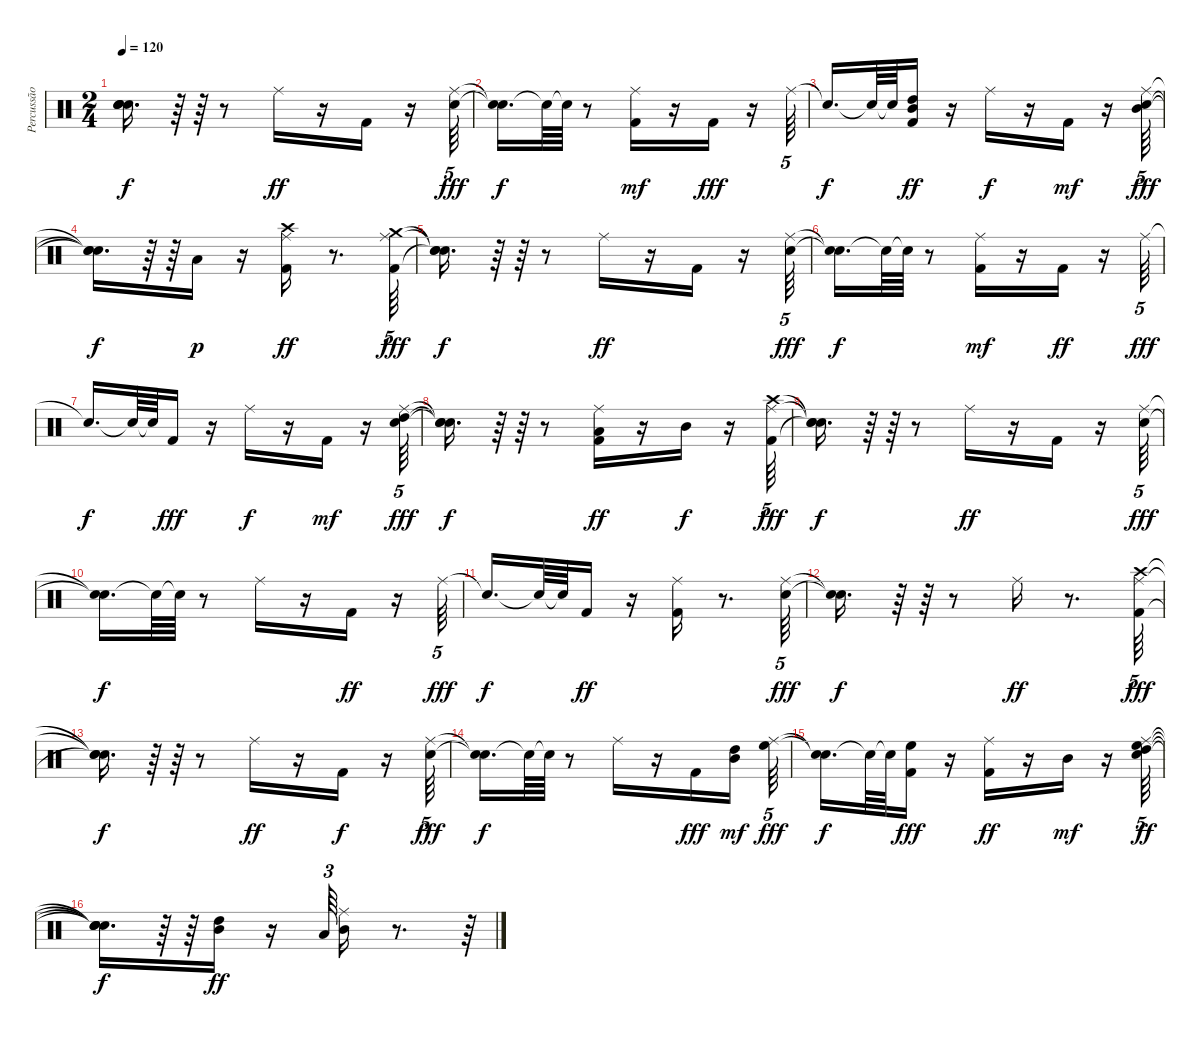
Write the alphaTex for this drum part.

\track ("Percussão" "Percussão") {instrument percussion}
\staff {score}
\articulation defaults
\ts (2 4)
\tempo 120
\clef neutral
\ks c
("Snare (hit)"{t} "Snare (hit)"{t} "Snare (hit)"{t} "Snare (hit)"{t}).16{d dy f} r.64 r.64 r.8 "Ride (middle)".16{dy ff} r.16 "Kick (hit) 2".16 r.16 ("Snare (hit) 2" "Ride (middle)").64{tu (5 4) dy fff} |
("Snare (hit)"{t} "Snare (hit)"{t}).16{d dy f} "Snare (hit)"{t}.64 "Snare (hit)"{t}.64 r.8 ("Kick (hit) 2" "Ride (middle)").16{dy mf} r.16 "Kick (hit) 2".16{dy fff} r.16 "Ride (middle)".64{tu (5 4)} |
"Snare (hit)"{t}.16{d dy f} "Snare (hit)"{t}.64 "Snare (hit)"{t}.64 ("Mid Tom (hit)" "High Tom (hit)" "Kick (hit) 2").16{dy ff} r.16 "Ride (middle)".16{dy f} r.16 "Kick (hit) 2".16{dy mf} r.16 ("Mid Tom (hit)" "Snare (hit) 2" "Ride (middle)").64{tu (5 4) dy fff} |
("Snare (hit)"{t} "Snare (hit)"{t} "Snare (hit)"{t}).16{d dy f} r.64 r.64 "Low Tom (hit)".16{dy p} r.16 ("Crash high (hit)" "Kick (hit) 2" "Ride (middle)").16{dy ff} r.8{d} ("Crash medium (hit)" "Kick (hit) 2" "Ride (middle)").64{tu (5 4) dy fff} |
("Snare (hit)"{t} "Snare (hit)"{t} "Snare (hit)"{t}).16{d dy f} r.64 r.64 r.8 "Ride (middle)".16{dy ff} r.16 "Kick (hit) 2".16 r.16 ("Snare (hit) 2" "Ride (middle)").64{tu (5 4) dy fff} |
("Snare (hit)"{t} "Snare (hit)"{t}).16{d dy f} "Snare (hit)"{t}.64 "Snare (hit)"{t}.64 r.8 ("Kick (hit) 2" "Ride (middle)").16{dy mf} r.16 "Kick (hit) 2".16{dy ff} r.16 "Ride (middle)".64{tu (5 4) dy fff} |
"Snare (hit)"{t}.16{d dy f} "Snare (hit)"{t}.64 "Snare (hit)"{t}.64 "Kick (hit) 2".16{dy fff} r.16 "Ride (middle)".16{dy f} r.16 "Kick (hit) 2".16{dy mf} r.16 ("High Tom (hit)" "Snare (hit) 2" "Ride (middle)").64{tu (5 4) dy fff} |
("Snare (hit)"{t} "Snare (hit)"{t} "Snare (hit)"{t}).16{d dy f} r.64 r.64 r.8 ("Low Tom (hit)" "Kick (hit) 2" "Ride (middle)").16{dy ff} r.16 "Mid Tom (hit)".16{dy f} r.16 ("Crash high (hit)" "Kick (hit) 2" "Ride (middle)").64{tu (5 4) dy fff} |
("Snare (hit)"{t} "Snare (hit)"{t} "Snare (hit)"{t}).16{d dy f} r.64 r.64 r.8 "Ride (middle)".16{dy ff} r.16 "Kick (hit) 2".16 r.16 ("Snare (hit) 2" "Ride (middle)").64{tu (5 4) dy fff} |
("Snare (hit)"{t} "Snare (hit)"{t}).16{d dy f} "Snare (hit)"{t}.64 "Snare (hit)"{t}.64 r.8 "Ride (middle)".16 r.16 "Kick (hit) 2".16{dy ff} r.16 "Ride (middle)".64{tu (5 4) dy fff} |
"Snare (hit)"{t}.16{d dy f} "Snare (hit)"{t}.64 "Snare (hit)"{t}.64 "Kick (hit) 2".16{dy ff} r.16 ("Kick (hit) 2" "Ride (middle)").16 r.8{d} ("Snare (hit) 2" "Ride (middle)").64{tu (5 4) dy fff} |
("Snare (hit)"{t} "Snare (hit)"{t}).16{d dy f} r.64 r.64 r.8 "Ride (middle)".16{dy ff} r.8{d} ("Crash high (hit)" "Kick (hit) 2" "Ride (middle)").64{tu (5 4) dy fff} |
("Snare (hit)"{t} "Snare (hit)"{t} "Snare (hit)"{t}).16{d dy f} r.64 r.64 r.8 "Ride (middle)".16{dy ff} r.16 "Kick (hit) 2".16{dy f} r.16 ("Snare (hit) 2" "Ride (middle)").64{tu (5 4) dy fff} |
("Snare (hit)"{t} "Snare (hit)"{t}).16{d dy f} "Snare (hit)"{t}.64 "Snare (hit)"{t}.64 r.8 "Ride (middle)".16 r.16 "Kick (hit) 2".16{dy fff} ("Mid Tom (hit)" "High Tom (hit)").16{dy mf} ("High Floor Tom (hit)" "Ride (middle)").64{tu (5 4) dy fff} |
("Snare (hit)"{t} "Snare (hit)"{t}).16{d dy f} "Snare (hit)"{t}.64 "Snare (hit)"{t}.64 ("Kick (hit) 2" "High Floor Tom (hit)").16{dy fff} r.16 ("Kick (hit) 2" "Ride (middle)").16{dy ff} r.16 "Mid Tom (hit)".16{dy mf} r.16 ("High Tom (hit)" "Snare (hit) 2" "Ride (middle)" "High Floor Tom (hit)").64{tu (5 4) dy ff} |
("Snare (hit)"{t} "Snare (hit)"{t} "Snare (hit)"{t} "Snare (hit)"{t}).16{d dy f} r.64 r.64 ("Mid Tom (hit)" "High Tom (hit)").16{dy ff} r.16 "Low Tom (hit)".64{tu (3 2)} ("Mid Tom (hit)" "Ride (middle)").16 r.8{d} r.64
